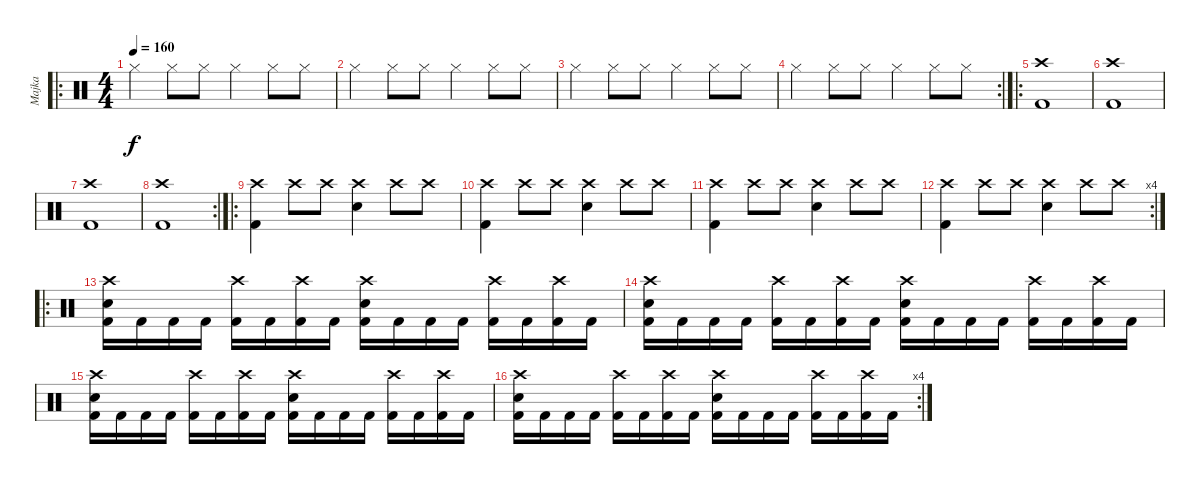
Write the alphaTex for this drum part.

\track ("Majka" "Majka") {instrument percussion}
\staff {score}
\articulation defaults
\ro
\ts (4 4)
\tempo 160
\clef neutral
\ks c "Hi-Hat (closed)".4{dy f volume 8} "Hi-Hat (closed)".8 "Hi-Hat (closed)".8 "Hi-Hat (closed)".4 "Hi-Hat (closed)".8 "Hi-Hat (closed)".8
|
"Hi-Hat (closed)".4 "Hi-Hat (closed)".8 "Hi-Hat (closed)".8 "Hi-Hat (closed)".4 "Hi-Hat (closed)".8 "Hi-Hat (closed)".8 |
"Hi-Hat (closed)".4 "Hi-Hat (closed)".8 "Hi-Hat (closed)".8 "Hi-Hat (closed)".4 "Hi-Hat (closed)".8 "Hi-Hat (closed)".8 |
\rc 2 "Hi-Hat (closed)".4 "Hi-Hat (closed)".8 "Hi-Hat (closed)".8 "Hi-Hat (closed)".4 "Hi-Hat (closed)".8 "Hi-Hat (closed)".8
|
\ro
("Crash high (hit)" "Kick (hit) 2").1{volume 13} |
("Crash high (hit)" "Kick (hit) 2").1 |
("Crash high (hit)" "Kick (hit) 2").1 |
\rc 2
("Crash high (hit)" "Kick (hit) 2").1 |
\ro
("Crash high (hit)" "Kick (hit) 2").4 "Crash high (hit)".8 "Crash high (hit)".8 ("Crash high (hit)" "Electric Snare (hit)").4 "Crash high (hit)".8 "Crash high (hit)".8 |
("Crash high (hit)" "Kick (hit) 2").4 "Crash high (hit)".8 "Crash high (hit)".8 ("Crash high (hit)" "Electric Snare (hit)").4 "Crash high (hit)".8 "Crash high (hit)".8 |
("Crash high (hit)" "Kick (hit) 2").4 "Crash high (hit)".8 "Crash high (hit)".8 ("Crash high (hit)" "Electric Snare (hit)").4 "Crash high (hit)".8 "Crash high (hit)".8 |
\rc 4
("Crash high (hit)" "Kick (hit) 2").4 "Crash high (hit)".8 "Crash high (hit)".8 ("Crash high (hit)" "Electric Snare (hit)").4 "Crash high (hit)".8 "Crash high (hit)".8 |
\ro
("Electric Snare (hit)" "Crash high (hit)" "Kick (hit) 2").16 "Kick (hit) 2".16 "Kick (hit) 2".16 "Kick (hit) 2".16 ("Crash high (hit)" "Kick (hit) 2").16 "Kick (hit) 2".16 ("Crash high (hit)" "Kick (hit) 2").16 "Kick (hit) 2".16 ("Electric Snare (hit)" "Crash high (hit)" "Kick (hit) 2").16 "Kick (hit) 2".16 "Kick (hit) 2".16 "Kick (hit) 2".16 ("Crash high (hit)" "Kick (hit) 2").16 "Kick (hit) 2".16 ("Crash high (hit)" "Kick (hit) 2").16 "Kick (hit) 2".16 |
("Electric Snare (hit)" "Crash high (hit)" "Kick (hit) 2").16 "Kick (hit) 2".16 "Kick (hit) 2".16 "Kick (hit) 2".16 ("Crash high (hit)" "Kick (hit) 2").16 "Kick (hit) 2".16 ("Crash high (hit)" "Kick (hit) 2").16 "Kick (hit) 2".16 ("Electric Snare (hit)" "Crash high (hit)" "Kick (hit) 2").16 "Kick (hit) 2".16 "Kick (hit) 2".16 "Kick (hit) 2".16 ("Crash high (hit)" "Kick (hit) 2").16 "Kick (hit) 2".16 ("Crash high (hit)" "Kick (hit) 2").16 "Kick (hit) 2".16 |
("Electric Snare (hit)" "Crash high (hit)" "Kick (hit) 2").16 "Kick (hit) 2".16 "Kick (hit) 2".16 "Kick (hit) 2".16 ("Crash high (hit)" "Kick (hit) 2").16 "Kick (hit) 2".16 ("Crash high (hit)" "Kick (hit) 2").16 "Kick (hit) 2".16 ("Electric Snare (hit)" "Crash high (hit)" "Kick (hit) 2").16 "Kick (hit) 2".16 "Kick (hit) 2".16 "Kick (hit) 2".16 ("Crash high (hit)" "Kick (hit) 2").16 "Kick (hit) 2".16 ("Crash high (hit)" "Kick (hit) 2").16 "Kick (hit) 2".16 |
\rc 4
("Electric Snare (hit)" "Crash high (hit)" "Kick (hit) 2").16 "Kick (hit) 2".16 "Kick (hit) 2".16 "Kick (hit) 2".16 ("Crash high (hit)" "Kick (hit) 2").16 "Kick (hit) 2".16 ("Crash high (hit)" "Kick (hit) 2").16 "Kick (hit) 2".16 ("Electric Snare (hit)" "Crash high (hit)" "Kick (hit) 2").16 "Kick (hit) 2".16 "Kick (hit) 2".16 "Kick (hit) 2".16 ("Crash high (hit)" "Kick (hit) 2").16 "Kick (hit) 2".16 ("Crash high (hit)" "Kick (hit) 2").16 "Kick (hit) 2".16
